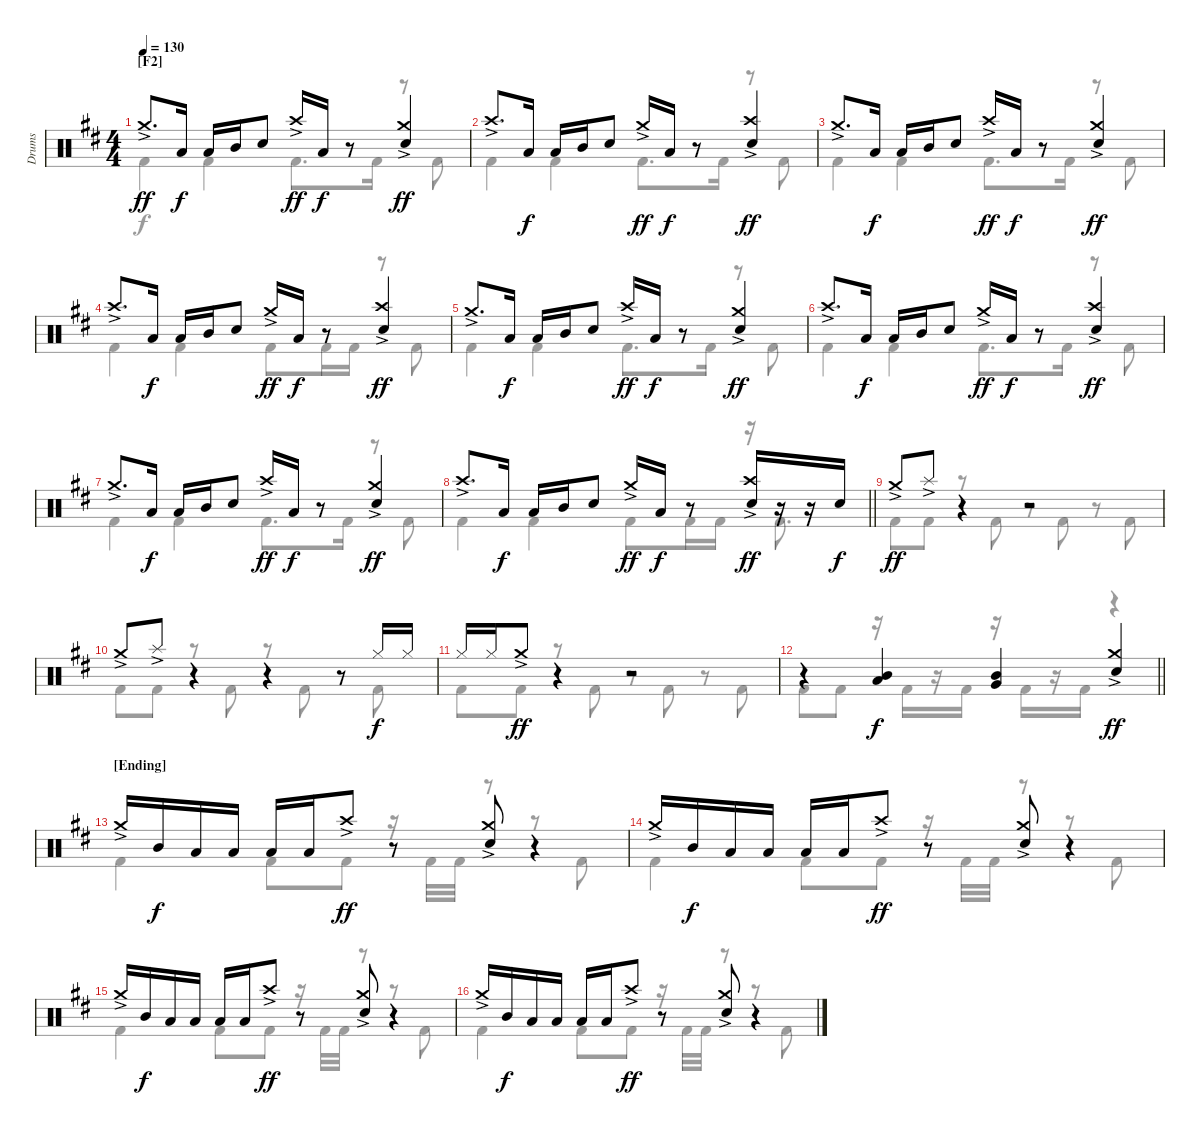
\track ("Drums" "Drums") {instrument percussion}
\staff {score}
\articulation defaults
\voice
\ts (4 4)
\section ("" "[F2]")
\tempo 130
\clef neutral
\ks bminor "Crash medium (hit)"{ac}.8{d dy ff} "Low Tom (hit)".16{dy f} "Low Tom (hit)".16 "Mid Tom (hit)".16 "Snare (hit) 2".8 "Crash high (hit)"{ac}.16{dy ff} "Low Tom (hit)".16{dy f}
r.8 ("Crash medium (hit)"{ac} "Snare (hit) 2").4{dy ff} |
"Crash high (hit)"{ac}.8{d} "Low Tom (hit)".16{dy f} "Low Tom (hit)".16 "Mid Tom (hit)".16 "Snare (hit) 2".8 "Crash medium (hit)"{ac}.16{dy ff} "Low Tom (hit)".16{dy f} r.8 ("Crash high (hit)"{ac} "Snare (hit) 2").4{dy ff} |
"Crash medium (hit)"{ac}.8{d} "Low Tom (hit)".16{dy f} "Low Tom (hit)".16 "Mid Tom (hit)".16 "Snare (hit) 2".8 "Crash high (hit)"{ac}.16{dy ff} "Low Tom (hit)".16{dy f} r.8 ("Crash medium (hit)"{ac} "Snare (hit) 2").4{dy ff} |
"Crash high (hit)"{ac}.8{d} "Low Tom (hit)".16{dy f} "Low Tom (hit)".16 "Mid Tom (hit)".16 "Snare (hit) 2".8 "Crash medium (hit)"{ac}.16{dy ff} "Low Tom (hit)".16{dy f} r.8 ("Crash high (hit)"{ac} "Snare (hit) 2").4{dy ff} |
"Crash medium (hit)"{ac}.8{d} "Low Tom (hit)".16{dy f} "Low Tom (hit)".16 "Mid Tom (hit)".16 "Snare (hit) 2".8 "Crash high (hit)"{ac}.16{dy ff} "Low Tom (hit)".16{dy f} r.8 ("Crash medium (hit)"{ac} "Snare (hit) 2").4{dy ff} |
"Crash high (hit)"{ac}.8{d} "Low Tom (hit)".16{dy f} "Low Tom (hit)".16 "Mid Tom (hit)".16 "Snare (hit) 2".8 "Crash medium (hit)"{ac}.16{dy ff} "Low Tom (hit)".16{dy f} r.8 ("Crash high (hit)"{ac} "Snare (hit) 2").4{dy ff} |
"Crash medium (hit)"{ac}.8{d} "Low Tom (hit)".16{dy f} "Low Tom (hit)".16 "Mid Tom (hit)".16 "Snare (hit) 2".8 "Crash high (hit)"{ac}.16{dy ff} "Low Tom (hit)".16{dy f} r.8 ("Crash medium (hit)"{ac} "Snare (hit) 2").4{dy ff} |
\barLineRight lightlight "Crash high (hit)"{ac}.8{d} "Low Tom (hit)".16{dy f} "Low Tom (hit)".16 "Mid Tom (hit)".16 "Snare (hit) 2".8 "Crash medium (hit)"{ac}.16{dy ff} "Low Tom (hit)".16{dy f}
r.8 ("Crash high (hit)"{ac} "Snare (hit) 2").16{dy ff} r.16 r.16 "Snare (hit) 2".16{dy f} |
\section ("" "")
"Crash medium (hit)"{ac}.8{dy ff} "Splash (hit)"{ac}.8 r.4 r.2 |
"Crash medium (hit)"{ac}.8 "Splash (hit)"{ac}.8 r.4 r.4 r.8 "Hi-Hat (closed)".16{dy f} "Hi-Hat (closed)".16 |
"Hi-Hat (closed)".16 "Hi-Hat (closed)".16 "Crash medium (hit)"{ac}.8{dy ff} r.4 r.2 |
\barLineRight lightlight
r.4 ("Mid Tom (hit)" "Low Tom (hit)").4{dy f} ("Mid Tom (hit)" "Very Low Tom (hit)").4 ("Crash medium (hit)"{ac} "Snare (hit) 2").4{dy ff} |
\section ("" "[Ending]")
"Crash medium (hit)"{ac}.16 "Mid Tom (hit)".16{dy f} "Low Tom (hit)".16 "Low Tom (hit)".16 "Low Tom (hit)".16 "Low Tom (hit)".16 "Crash high (hit)"{ac}.8{dy ff} r.8 ("Crash medium (hit)"{ac} "Snare (hit) 2").8 r.4 |
"Crash medium (hit)"{ac}.16 "Mid Tom (hit)".16{dy f} "Low Tom (hit)".16 "Low Tom (hit)".16 "Low Tom (hit)".16 "Low Tom (hit)".16 "Crash high (hit)"{ac}.8{dy ff} r.8 ("Crash medium (hit)"{ac} "Snare (hit) 2").8 r.4 |
"Crash medium (hit)"{ac}.16 "Mid Tom (hit)".16{dy f} "Low Tom (hit)".16 "Low Tom (hit)".16 "Low Tom (hit)".16 "Low Tom (hit)".16 "Crash high (hit)"{ac}.8{dy ff} r.8 ("Crash medium (hit)"{ac} "Snare (hit) 2").8 r.4 |
"Crash medium (hit)"{ac}.16 "Mid Tom (hit)".16{dy f} "Low Tom (hit)".16 "Low Tom (hit)".16 "Low Tom (hit)".16 "Low Tom (hit)".16 "Crash high (hit)"{ac}.8{dy ff} r.8 ("Crash medium (hit)"{ac} "Snare (hit) 2").8 r.4
\voice
\clef neutral
\ottava regular
\simile none
\ks bminor "Kick (hit) 2".4{dy f} "Kick (hit) 2".4 "Kick (hit) 2".8{d} "Kick (hit) 2".16
r.8 "Kick (hit) 2".8 |
"Kick (hit) 2".4 "Kick (hit) 2".4 "Kick (hit) 2".8{d} "Kick (hit) 2".16 r.8 "Kick (hit) 2".8 |
"Kick (hit) 2".4 "Kick (hit) 2".4 "Kick (hit) 2".8{d} "Kick (hit) 2".16 r.8 "Kick (hit) 2".8 |
"Kick (hit) 2".4 "Kick (hit) 2".4 "Kick (hit) 2".8 "Kick (hit) 2".16 "Kick (hit) 2".16 r.8 "Kick (hit) 2".8 |
"Kick (hit) 2".4 "Kick (hit) 2".4 "Kick (hit) 2".8{d} "Kick (hit) 2".16 r.8 "Kick (hit) 2".8 |
"Kick (hit) 2".4 "Kick (hit) 2".4 "Kick (hit) 2".8{d} "Kick (hit) 2".16 r.8 "Kick (hit) 2".8 |
"Kick (hit) 2".4 "Kick (hit) 2".4 "Kick (hit) 2".8{d} "Kick (hit) 2".16 r.8 "Kick (hit) 2".8 |
\barLineRight lightlight "Kick (hit) 2".4 "Kick (hit) 2".4 "Kick (hit) 2".8 "Kick (hit) 2".16 "Kick (hit) 2".16
r.16 "Kick (hit) 2".8{d} |
"Kick (hit) 2".8 "Kick (hit) 2".8 r.8 "Kick (hit) 2".8 r.8 "Kick (hit) 2".8 r.8 "Kick (hit) 2".8 |
"Kick (hit) 2".8 "Kick (hit) 2".8 r.8 "Kick (hit) 2".8 r.8 "Kick (hit) 2".8 r.8 "Kick (hit) 2".8 |
"Kick (hit) 2".8 "Kick (hit) 2".8 r.8 "Kick (hit) 2".8 r.8 "Kick (hit) 2".8 r.8 "Kick (hit) 2".8 |
\barLineRight lightlight "Kick (hit) 2".8 "Kick (hit) 2".8
r.16 "Kick (hit) 2".16 r.16 "Kick (hit) 2".16 r.16 "Kick (hit) 2".16 r.16 "Kick (hit) 2".16 r.4 |
"Kick (hit) 2".4 "Kick (hit) 2".8 "Kick (hit) 2".8 r.16 "Kick (hit) 2".32 "Kick (hit) 2".32 r.8 r.8 "Kick (hit) 2".8 |
"Kick (hit) 2".4 "Kick (hit) 2".8 "Kick (hit) 2".8 r.16 "Kick (hit) 2".32 "Kick (hit) 2".32 r.8 r.8 "Kick (hit) 2".8 |
"Kick (hit) 2".4 "Kick (hit) 2".8 "Kick (hit) 2".8 r.16 "Kick (hit) 2".32 "Kick (hit) 2".32 r.8 r.8 "Kick (hit) 2".8 |
"Kick (hit) 2".4 "Kick (hit) 2".8 "Kick (hit) 2".8 r.16 "Kick (hit) 2".32 "Kick (hit) 2".32 r.8 r.8 "Kick (hit) 2".8
